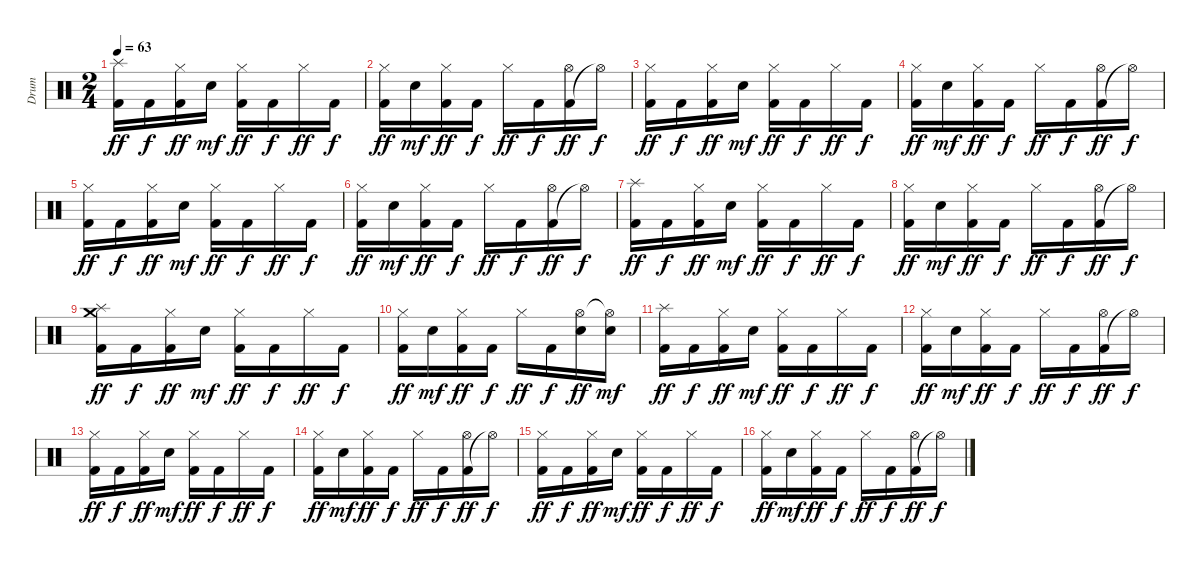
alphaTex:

\track ("Drum" "Drum") {instrument percussion}
\staff {score}
\articulation defaults
\ts (2 4)
\tempo 63
\clef neutral
\ks c
("Kick (hit) 2" "Splash (hit)").16{dy ff} "Kick (hit) 2".16{dy f} ("Kick (hit) 2" "Hi-Hat (closed)").16{dy ff} "Snare (hit) 2".16{dy mf} ("Kick (hit) 2" "Hi-Hat (closed)").16{dy ff} "Kick (hit) 2".16{dy f} "Hi-Hat (closed)".16{dy ff} "Kick (hit) 2".16{dy f} |
("Kick (hit) 2" "Hi-Hat (closed)").16{dy ff} "Snare (hit) 2".16{dy mf} ("Kick (hit) 2" "Hi-Hat (closed)").16{dy ff} "Kick (hit) 2".16{dy f} "Hi-Hat (closed)".16{dy ff} "Kick (hit) 2".16{dy f} ("Kick (hit) 2" "Hi-Hat (open)").16{dy ff} "Hi-Hat (open)"{t}.16{dy f} |
("Kick (hit) 2" "Hi-Hat (closed)").16{dy ff} "Kick (hit) 2".16{dy f} ("Kick (hit) 2" "Hi-Hat (closed)").16{dy ff} "Snare (hit) 2".16{dy mf} ("Kick (hit) 2" "Hi-Hat (closed)").16{dy ff} "Kick (hit) 2".16{dy f} "Hi-Hat (closed)".16{dy ff} "Kick (hit) 2".16{dy f} |
("Kick (hit) 2" "Hi-Hat (closed)").16{dy ff} "Snare (hit) 2".16{dy mf} ("Kick (hit) 2" "Hi-Hat (closed)").16{dy ff} "Kick (hit) 2".16{dy f} "Hi-Hat (closed)".16{dy ff} "Kick (hit) 2".16{dy f} ("Kick (hit) 2" "Hi-Hat (open)").16{dy ff} "Hi-Hat (open)"{t}.16{dy f} |
("Kick (hit) 2" "Hi-Hat (closed)").16{dy ff} "Kick (hit) 2".16{dy f} ("Kick (hit) 2" "Hi-Hat (closed)").16{dy ff} "Snare (hit) 2".16{dy mf} ("Kick (hit) 2" "Hi-Hat (closed)").16{dy ff} "Kick (hit) 2".16{dy f} "Hi-Hat (closed)".16{dy ff} "Kick (hit) 2".16{dy f} |
("Kick (hit) 2" "Hi-Hat (closed)").16{dy ff} "Snare (hit) 2".16{dy mf} ("Kick (hit) 2" "Hi-Hat (closed)").16{dy ff} "Kick (hit) 2".16{dy f} "Hi-Hat (closed)".16{dy ff} "Kick (hit) 2".16{dy f} ("Kick (hit) 2" "Hi-Hat (open)").16{dy ff} "Hi-Hat (open)"{t}.16{dy f} |
("Kick (hit) 2" "Splash (hit)").16{dy ff} "Kick (hit) 2".16{dy f} ("Kick (hit) 2" "Hi-Hat (closed)").16{dy ff} "Snare (hit) 2".16{dy mf} ("Kick (hit) 2" "Hi-Hat (closed)").16{dy ff} "Kick (hit) 2".16{dy f} "Hi-Hat (closed)".16{dy ff} "Kick (hit) 2".16{dy f} |
("Kick (hit) 2" "Hi-Hat (closed)").16{dy ff} "Snare (hit) 2".16{dy mf} ("Kick (hit) 2" "Hi-Hat (closed)").16{dy ff} "Kick (hit) 2".16{dy f} "Hi-Hat (closed)".16{dy ff} "Kick (hit) 2".16{dy f} ("Kick (hit) 2" "Hi-Hat (open)").16{dy ff} "Hi-Hat (open)"{t}.16{dy f} |
("Kick (hit) 2" "Splash (hit)" "Crash medium (hit)").16{dy ff} "Kick (hit) 2".16{dy f} ("Kick (hit) 2" "Hi-Hat (closed)").16{dy ff} "Snare (hit) 2".16{dy mf} ("Kick (hit) 2" "Hi-Hat (closed)").16{dy ff} "Kick (hit) 2".16{dy f} "Hi-Hat (closed)".16{dy ff} "Kick (hit) 2".16{dy f} |
("Kick (hit) 2" "Hi-Hat (closed)").16{dy ff} "Snare (hit) 2".16{dy mf} ("Kick (hit) 2" "Hi-Hat (closed)").16{dy ff} "Kick (hit) 2".16{dy f} "Hi-Hat (closed)".16{dy ff} "Kick (hit) 2".16{dy f} ("Snare (hit) 2" "Hi-Hat (open)").16{dy ff} ("Snare (hit) 2" "Hi-Hat (open)"{t}).16{dy mf} |
("Kick (hit) 2" "Splash (hit)").16{dy ff} "Kick (hit) 2".16{dy f} ("Kick (hit) 2" "Hi-Hat (closed)").16{dy ff} "Snare (hit) 2".16{dy mf} ("Kick (hit) 2" "Hi-Hat (closed)").16{dy ff} "Kick (hit) 2".16{dy f} "Hi-Hat (closed)".16{dy ff} "Kick (hit) 2".16{dy f} |
("Kick (hit) 2" "Hi-Hat (closed)").16{dy ff} "Snare (hit) 2".16{dy mf} ("Kick (hit) 2" "Hi-Hat (closed)").16{dy ff} "Kick (hit) 2".16{dy f} "Hi-Hat (closed)".16{dy ff} "Kick (hit) 2".16{dy f} ("Kick (hit) 2" "Hi-Hat (open)").16{dy ff} "Hi-Hat (open)"{t}.16{dy f} |
("Kick (hit) 2" "Hi-Hat (closed)").16{dy ff} "Kick (hit) 2".16{dy f} ("Kick (hit) 2" "Hi-Hat (closed)").16{dy ff} "Snare (hit) 2".16{dy mf} ("Kick (hit) 2" "Hi-Hat (closed)").16{dy ff} "Kick (hit) 2".16{dy f} "Hi-Hat (closed)".16{dy ff} "Kick (hit) 2".16{dy f} |
("Kick (hit) 2" "Hi-Hat (closed)").16{dy ff} "Snare (hit) 2".16{dy mf} ("Kick (hit) 2" "Hi-Hat (closed)").16{dy ff} "Kick (hit) 2".16{dy f} "Hi-Hat (closed)".16{dy ff} "Kick (hit) 2".16{dy f} ("Kick (hit) 2" "Hi-Hat (open)").16{dy ff} "Hi-Hat (open)"{t}.16{dy f} |
("Kick (hit) 2" "Hi-Hat (closed)").16{dy ff} "Kick (hit) 2".16{dy f} ("Kick (hit) 2" "Hi-Hat (closed)").16{dy ff} "Snare (hit) 2".16{dy mf} ("Kick (hit) 2" "Hi-Hat (closed)").16{dy ff} "Kick (hit) 2".16{dy f} "Hi-Hat (closed)".16{dy ff} "Kick (hit) 2".16{dy f} |
("Kick (hit) 2" "Hi-Hat (closed)").16{dy ff} "Snare (hit) 2".16{dy mf} ("Kick (hit) 2" "Hi-Hat (closed)").16{dy ff} "Kick (hit) 2".16{dy f} "Hi-Hat (closed)".16{dy ff} "Kick (hit) 2".16{dy f} ("Kick (hit) 2" "Hi-Hat (open)").16{dy ff} "Hi-Hat (open)"{t}.16{dy f}
